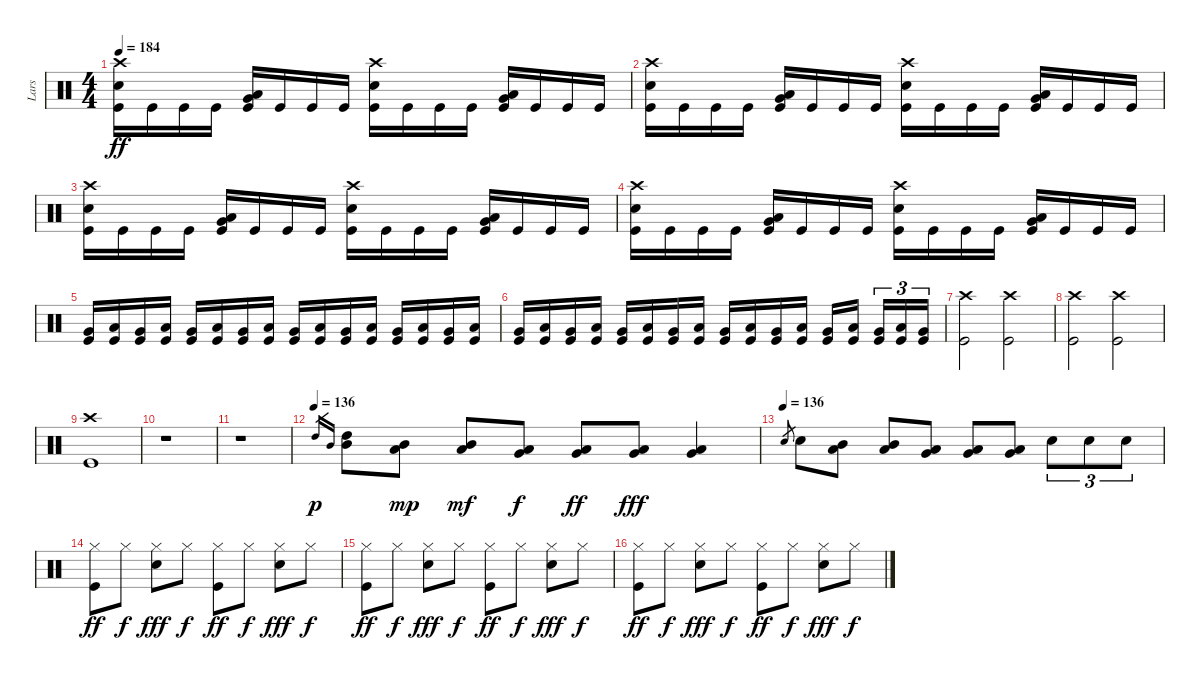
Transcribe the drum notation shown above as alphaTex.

\track ("Lars" "Lars") {instrument percussion}
\staff {score}
\articulation defaults
\ts (4 4)
\tempo 184
\clef neutral
\ks c
("Crash high (hit)" "Electric Snare (hit)" "Kick (hit)").16{dy ff} "Kick (hit)".16 "Kick (hit)".16 "Kick (hit)".16 ("Low Tom (hit)" "Very Low Tom (hit)" "Kick (hit)").16 "Kick (hit)".16 "Kick (hit)".16 "Kick (hit)".16 ("Crash high (hit)" "Electric Snare (hit)" "Kick (hit)").16 "Kick (hit)".16 "Kick (hit)".16 "Kick (hit)".16 ("Low Tom (hit)" "Very Low Tom (hit)" "Kick (hit)").16 "Kick (hit)".16 "Kick (hit)".16 "Kick (hit)".16 |
("Crash high (hit)" "Electric Snare (hit)" "Kick (hit)").16 "Kick (hit)".16 "Kick (hit)".16 "Kick (hit)".16 ("Low Tom (hit)" "Very Low Tom (hit)" "Kick (hit)").16 "Kick (hit)".16 "Kick (hit)".16 "Kick (hit)".16 ("Crash high (hit)" "Electric Snare (hit)" "Kick (hit)").16 "Kick (hit)".16 "Kick (hit)".16 "Kick (hit)".16 ("Low Tom (hit)" "Very Low Tom (hit)" "Kick (hit)").16 "Kick (hit)".16 "Kick (hit)".16 "Kick (hit)".16 |
("Crash high (hit)" "Electric Snare (hit)" "Kick (hit)").16 "Kick (hit)".16 "Kick (hit)".16 "Kick (hit)".16 ("Low Tom (hit)" "Very Low Tom (hit)" "Kick (hit)").16 "Kick (hit)".16 "Kick (hit)".16 "Kick (hit)".16 ("Crash high (hit)" "Electric Snare (hit)" "Kick (hit)").16 "Kick (hit)".16 "Kick (hit)".16 "Kick (hit)".16 ("Low Tom (hit)" "Very Low Tom (hit)" "Kick (hit)").16 "Kick (hit)".16 "Kick (hit)".16 "Kick (hit)".16 |
("Crash high (hit)" "Electric Snare (hit)" "Kick (hit)").16 "Kick (hit)".16 "Kick (hit)".16 "Kick (hit)".16 ("Low Tom (hit)" "Very Low Tom (hit)" "Kick (hit)").16 "Kick (hit)".16 "Kick (hit)".16 "Kick (hit)".16 ("Crash high (hit)" "Electric Snare (hit)" "Kick (hit)").16 "Kick (hit)".16 "Kick (hit)".16 "Kick (hit)".16 ("Low Tom (hit)" "Very Low Tom (hit)" "Kick (hit)").16 "Kick (hit)".16 "Kick (hit)".16 "Kick (hit)".16 |
("Very Low Tom (hit)" "Kick (hit)").16 ("Low Tom (hit)" "Kick (hit)").16 ("Very Low Tom (hit)" "Kick (hit)").16 ("Low Tom (hit)" "Kick (hit)").16 ("Very Low Tom (hit)" "Kick (hit)").16 ("Low Tom (hit)" "Kick (hit)").16 ("Very Low Tom (hit)" "Kick (hit)").16 ("Low Tom (hit)" "Kick (hit)").16 ("Very Low Tom (hit)" "Kick (hit)").16 ("Low Tom (hit)" "Kick (hit)").16 ("Very Low Tom (hit)" "Kick (hit)").16 ("Low Tom (hit)" "Kick (hit)").16 ("Very Low Tom (hit)" "Kick (hit)").16 ("Low Tom (hit)" "Kick (hit)").16 ("Very Low Tom (hit)" "Kick (hit)").16 ("Low Tom (hit)" "Kick (hit)").16 |
("Very Low Tom (hit)" "Kick (hit)").16 ("Low Tom (hit)" "Kick (hit)").16 ("Very Low Tom (hit)" "Kick (hit)").16 ("Low Tom (hit)" "Kick (hit)").16 ("Very Low Tom (hit)" "Kick (hit)").16 ("Low Tom (hit)" "Kick (hit)").16 ("Very Low Tom (hit)" "Kick (hit)").16 ("Low Tom (hit)" "Kick (hit)").16 ("Very Low Tom (hit)" "Kick (hit)").16 ("Low Tom (hit)" "Kick (hit)").16 ("Very Low Tom (hit)" "Kick (hit)").16 ("Low Tom (hit)" "Kick (hit)").16 ("Very Low Tom (hit)" "Kick (hit)").16 ("Low Tom (hit)" "Kick (hit)").16 ("Very Low Tom (hit)" "Kick (hit)").16{tu (3 2)} ("Low Tom (hit)" "Kick (hit)").16{tu (3 2)} ("Very Low Tom (hit)" "Kick (hit)").16{tu (3 2)} |
("Crash high (hit)" "Kick (hit)").2 ("Crash high (hit)" "Kick (hit)").2 |
("Crash high (hit)" "Kick (hit)").2 ("Crash high (hit)" "Kick (hit)").2 |
("Crash high (hit)" "Kick (hit)").1 |
r.1 |
r.1 |
\tempo (136)
"High Tom (hit)".16{gr dy p} "Mid Tom (hit)".16{gr} ("High Tom (hit)" "Mid Tom (hit)").8 ("Mid Tom (hit)" "Low Tom (hit)").8{dy mp} ("Mid Tom (hit)" "Low Tom (hit)").8{dy mf} ("Low Tom (hit)" "Very Low Tom (hit)").8{dy f} ("Low Tom (hit)" "Very Low Tom (hit)").8{dy ff} ("Very Low Tom (hit)" "Low Floor Tom (hit)").8{dy fff} ("Very Low Tom (hit)" "Low Floor Tom (hit)").4 |
\tempo (136)
"Electric Snare (hit)".8{gr} "Electric Snare (hit)".8 ("Mid Tom (hit)" "Low Tom (hit)").8 ("Mid Tom (hit)" "Low Tom (hit)").8 ("Low Tom (hit)" "Very Low Tom (hit)").8 ("Low Tom (hit)" "Very Low Tom (hit)").8 ("Very Low Tom (hit)" "Low Floor Tom (hit)").8 "Electric Snare (hit)".8{tu (3 2)} "Electric Snare (hit)".8{tu (3 2)} "Electric Snare (hit)".8{tu (3 2)} |
("Hi-Hat (closed)" "Kick (hit)").8{dy ff} "Hi-Hat (closed)".8{dy f} ("Hi-Hat (closed)" "Electric Snare (hit)").8{dy fff} "Hi-Hat (closed)".8{dy f} ("Hi-Hat (closed)" "Kick (hit)").8{dy ff} "Hi-Hat (closed)".8{dy f} ("Hi-Hat (closed)" "Electric Snare (hit)").8{dy fff} "Hi-Hat (closed)".8{dy f} |
("Hi-Hat (closed)" "Kick (hit)").8{dy ff} "Hi-Hat (closed)".8{dy f} ("Hi-Hat (closed)" "Electric Snare (hit)").8{dy fff} "Hi-Hat (closed)".8{dy f} ("Hi-Hat (closed)" "Kick (hit)").8{dy ff} "Hi-Hat (closed)".8{dy f} ("Hi-Hat (closed)" "Electric Snare (hit)").8{dy fff} "Hi-Hat (closed)".8{dy f} |
("Hi-Hat (closed)" "Kick (hit)").8{dy ff} "Hi-Hat (closed)".8{dy f} ("Hi-Hat (closed)" "Electric Snare (hit)").8{dy fff} "Hi-Hat (closed)".8{dy f} ("Hi-Hat (closed)" "Kick (hit)").8{dy ff} "Hi-Hat (closed)".8{dy f} ("Hi-Hat (closed)" "Electric Snare (hit)").8{dy fff} "Hi-Hat (closed)".8{dy f}
